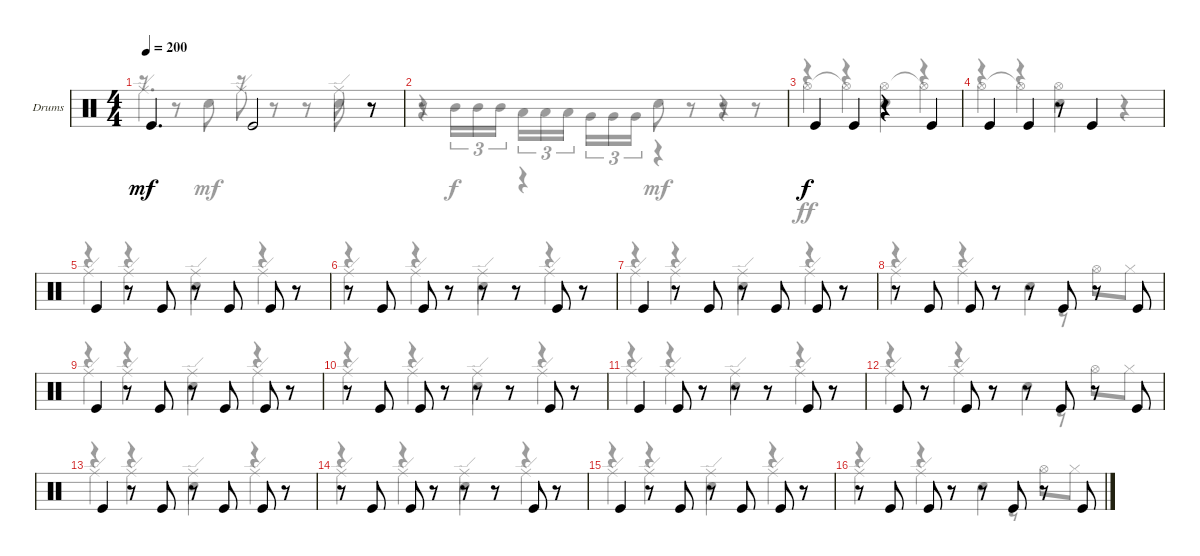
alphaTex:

\defaultSystemsLayout 4
\bracketExtendMode groupsimilarinstruments
\firstSystemTrackNameOrientation horizontal
\otherSystemsTrackNameOrientation horizontal
\track ("Drum" "Drums") {instrument percussion}
\staff {score}
\articulation defaults
\voice
\ts (4 4)
\tempo 200
\clef neutral
\ks c "Kick (hit)".4{d dy mf} "Kick (hit)".2
r.8 |
|
"Kick (hit)".4{dy f} "Kick (hit)".4 r.4 "Kick (hit)".4 |
"Kick (hit)".4 "Kick (hit)".4 r.8 "Kick (hit)".4 |
"Kick (hit)".4 r.8 "Kick (hit)".8 r.8 "Kick (hit)".8 "Kick (hit)".8 r.8 |
r.8 "Kick (hit)".8 "Kick (hit)".8 r.8 r.8 r.8 "Kick (hit)".8 r.8 |
"Kick (hit)".4 r.8 "Kick (hit)".8 r.8 "Kick (hit)".8 "Kick (hit)".8 r.8 |
r.8 "Kick (hit)".8 "Kick (hit)".8 r.8 r.8 "Kick (hit)".8 r.8 "Kick (hit)".8 |
"Kick (hit)".4 r.8 "Kick (hit)".8 r.8 "Kick (hit)".8 "Kick (hit)".8 r.8 |
r.8 "Kick (hit)".8 "Kick (hit)".8 r.8 r.8 r.8 "Kick (hit)".8 r.8 |
"Kick (hit)".4 "Kick (hit)".8 r.8 r.8 r.8 "Kick (hit)".8 r.8 |
"Kick (hit)".8 r.8 "Kick (hit)".8 r.8 r.8 "Kick (hit)".8 r.8 "Kick (hit)".8 |
"Kick (hit)".4 r.8 "Kick (hit)".8 r.8 "Kick (hit)".8 "Kick (hit)".8 r.8 |
r.8 "Kick (hit)".8 "Kick (hit)".8 r.8 r.8 r.8 "Kick (hit)".8 r.8 |
"Kick (hit)".4 r.8 "Kick (hit)".8 r.8 "Kick (hit)".8 "Kick (hit)".8 r.8 |
r.8 "Kick (hit)".8 "Kick (hit)".8 r.8 r.8 "Kick (hit)".8 r.8 "Kick (hit)".8
\voice
\clef neutral
\ottava regular
\simile none
\ks c
r.8{dy mf} r.8 "Snare (hit) 2".8 r.8 r.8 r.8 "Snare (hit) 2".8 r.8 |
r.8 "Mid Tom (hit)".16{tu (3 2) dy f} "Mid Tom (hit)".16{tu (3 2)} "Mid Tom (hit)".16{tu (3 2)} "Low Tom (hit)".16{tu (3 2)} "Low Tom (hit)".16{tu (3 2)} "Low Tom (hit)".16{tu (3 2)} "Very Low Tom (hit)".16{tu (3 2)} "Very Low Tom (hit)".16{tu (3 2)} "Very Low Tom (hit)".16{tu (3 2)} "Snare (hit) 2".8{dy mf} r.8 r.8 r.8 |
r.4 r.4 "Snare (hit) 2".4 r.4 |
r.4 r.4 "Snare (hit) 2".4 r.4 |
r.4 r.4 "Snare (hit) 2".4 r.4 |
r.4 r.4 "Snare (hit) 2".4 r.4 |
r.4 r.4 "Snare (hit) 2".4 r.4 |
r.4 r.4 "Snare (hit) 2".4 |
r.4 r.4 "Snare (hit) 2".4 r.4 |
r.4 r.4 "Snare (hit) 2".4 r.4 |
r.4 r.4 "Snare (hit) 2".4 r.4 |
r.4 r.4 "Snare (hit) 2".4 |
r.4 r.4 "Snare (hit) 2".4 r.4 |
r.4 r.4 "Snare (hit) 2".4 r.4 |
r.4 r.4 "Snare (hit) 2".4 r.4 |
r.4 r.4 "Snare (hit) 2".4
\voice
\clef neutral
\ottava regular
\simile none
\ks c "Ride (edge)".4{d dy mf} "Ride (edge)".8
r.8 r.8 "Ride (edge)".8 r.8 |
r.4 r.4 r.4 r.4 |
"Hi-Hat (open)".4{dy ff} "Hi-Hat (open)"{t}.4 "Hi-Hat (open)".4 "Hi-Hat (open)"{t}.4 |
"Hi-Hat (open)".4 "Hi-Hat (open)"{t}.4 "Hi-Hat (open)".4 r.4 |
"Ride (edge)".4 "Ride (edge)".4 "Ride (edge)".4 "Ride (edge)".4 |
"Ride (edge)".4 "Ride (edge)".4 "Ride (edge)".4 "Ride (edge)".4 |
"Ride (edge)".4 "Ride (edge)".4 "Ride (edge)".4 "Ride (edge)".4 |
"Ride (edge)".4 "Ride (edge)".4 r.8 r.8 "Hi-Hat (open)".8 "Hi-Hat (closed)".8 |
"Ride (edge)".4 "Ride (edge)".4 "Ride (edge)".4 "Ride (edge)".4 |
"Ride (edge)".4 "Ride (edge)".4 "Ride (edge)".4 "Ride (edge)".4 |
"Ride (edge)".4 "Ride (edge)".4 "Ride (edge)".4 "Ride (edge)".4 |
"Ride (edge)".4 "Ride (edge)".4 r.8 r.8 "Hi-Hat (open)".8 "Hi-Hat (closed)".8 |
"Ride (edge)".4 "Ride (edge)".4 "Ride (edge)".4 "Ride (edge)".4 |
"Ride (edge)".4 "Ride (edge)".4 "Ride (edge)".4 "Ride (edge)".4 |
"Ride (edge)".4 "Ride (edge)".4 "Ride (edge)".4 "Ride (edge)".4 |
"Ride (edge)".4 "Ride (edge)".4 r.8 r.8 "Hi-Hat (open)".8 "Hi-Hat (closed)".8
